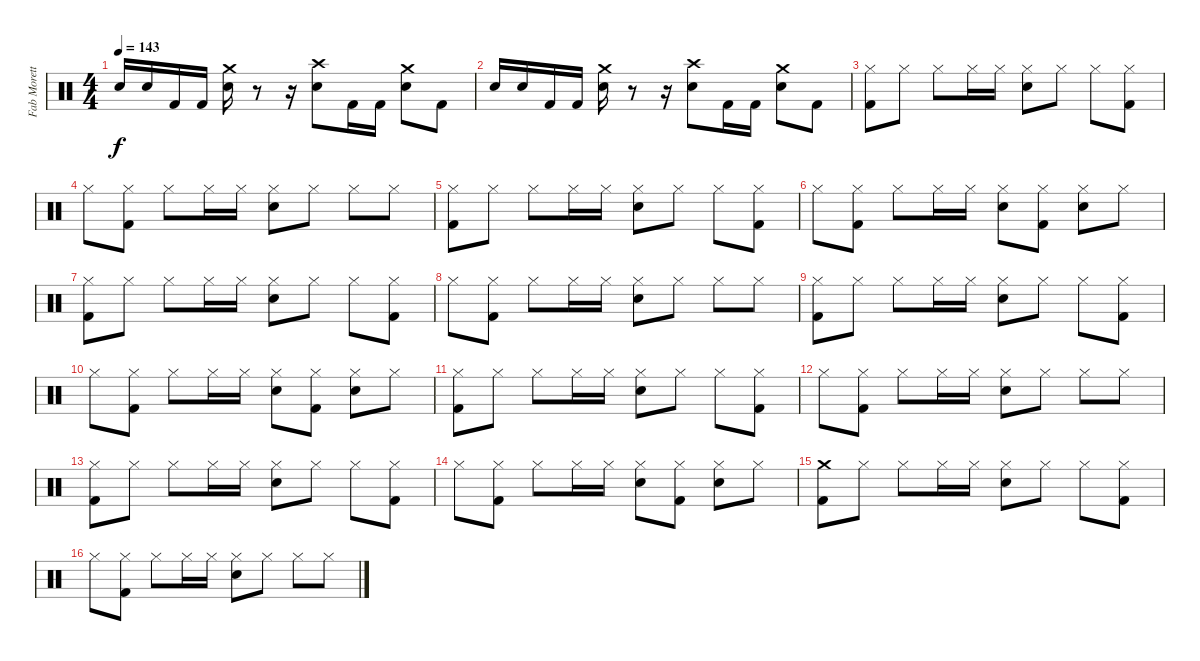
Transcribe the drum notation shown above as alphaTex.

\track ("Fab Moretti" "Fab Morett") {instrument percussion}
\staff {score}
\articulation defaults
\ts (4 4)
\tempo 143
\clef neutral
\ks c "Electric Snare (hit)".16{dy f} "Electric Snare (hit)".16 "Kick (hit) 2".16 "Kick (hit) 2".16
("Crash medium (hit)" "Electric Snare (hit)").16 r.8 r.16 ("Crash high (hit)" "Electric Snare (hit)").8 "Kick (hit) 2".16 "Kick (hit) 2".16 ("Crash medium (hit)" "Electric Snare (hit)").8 "Kick (hit) 2".8 |
"Electric Snare (hit)".16 "Electric Snare (hit)".16 "Kick (hit) 2".16 "Kick (hit) 2".16 ("Crash medium (hit)" "Electric Snare (hit)").16 r.8 r.16 ("Crash high (hit)" "Electric Snare (hit)").8 "Kick (hit) 2".16 "Kick (hit) 2".16 ("Crash medium (hit)" "Electric Snare (hit)").8 "Kick (hit) 2".8 |
("Hi-Hat (closed)" "Kick (hit) 2").8 "Hi-Hat (closed)".8 "Hi-Hat (closed)".8 "Hi-Hat (closed)".16 "Hi-Hat (closed)".16 ("Hi-Hat (closed)" "Electric Snare (hit)").8 "Hi-Hat (closed)".8 "Hi-Hat (closed)".8 ("Hi-Hat (closed)" "Kick (hit) 2").8 |
"Hi-Hat (closed)".8 ("Hi-Hat (closed)" "Kick (hit) 2").8 "Hi-Hat (closed)".8 "Hi-Hat (closed)".16 "Hi-Hat (closed)".16 ("Hi-Hat (closed)" "Electric Snare (hit)").8 "Hi-Hat (closed)".8 "Hi-Hat (closed)".8 "Hi-Hat (closed)".8 |
("Hi-Hat (closed)" "Kick (hit) 2").8 "Hi-Hat (closed)".8 "Hi-Hat (closed)".8 "Hi-Hat (closed)".16 "Hi-Hat (closed)".16 ("Hi-Hat (closed)" "Electric Snare (hit)").8 "Hi-Hat (closed)".8 "Hi-Hat (closed)".8 ("Hi-Hat (closed)" "Kick (hit) 2").8 |
"Hi-Hat (closed)".8 ("Hi-Hat (closed)" "Kick (hit) 2").8 "Hi-Hat (closed)".8 "Hi-Hat (closed)".16 "Hi-Hat (closed)".16 ("Hi-Hat (closed)" "Electric Snare (hit)").8 ("Hi-Hat (closed)" "Kick (hit) 2").8 ("Hi-Hat (closed)" "Electric Snare (hit)").8 "Hi-Hat (closed)".8 |
("Hi-Hat (closed)" "Kick (hit) 2").8 "Hi-Hat (closed)".8 "Hi-Hat (closed)".8 "Hi-Hat (closed)".16 "Hi-Hat (closed)".16 ("Hi-Hat (closed)" "Electric Snare (hit)").8 "Hi-Hat (closed)".8 "Hi-Hat (closed)".8 ("Hi-Hat (closed)" "Kick (hit) 2").8 |
"Hi-Hat (closed)".8 ("Hi-Hat (closed)" "Kick (hit) 2").8 "Hi-Hat (closed)".8 "Hi-Hat (closed)".16 "Hi-Hat (closed)".16 ("Hi-Hat (closed)" "Electric Snare (hit)").8 "Hi-Hat (closed)".8 "Hi-Hat (closed)".8 "Hi-Hat (closed)".8 |
("Hi-Hat (closed)" "Kick (hit) 2").8 "Hi-Hat (closed)".8 "Hi-Hat (closed)".8 "Hi-Hat (closed)".16 "Hi-Hat (closed)".16 ("Hi-Hat (closed)" "Electric Snare (hit)").8 "Hi-Hat (closed)".8 "Hi-Hat (closed)".8 ("Hi-Hat (closed)" "Kick (hit) 2").8 |
"Hi-Hat (closed)".8 ("Hi-Hat (closed)" "Kick (hit) 2").8 "Hi-Hat (closed)".8 "Hi-Hat (closed)".16 "Hi-Hat (closed)".16 ("Hi-Hat (closed)" "Electric Snare (hit)").8 ("Hi-Hat (closed)" "Kick (hit) 2").8 ("Hi-Hat (closed)" "Electric Snare (hit)").8 "Hi-Hat (closed)".8 |
("Hi-Hat (closed)" "Kick (hit) 2").8 "Hi-Hat (closed)".8 "Hi-Hat (closed)".8 "Hi-Hat (closed)".16 "Hi-Hat (closed)".16 ("Hi-Hat (closed)" "Electric Snare (hit)").8 "Hi-Hat (closed)".8 "Hi-Hat (closed)".8 ("Hi-Hat (closed)" "Kick (hit) 2").8 |
"Hi-Hat (closed)".8 ("Hi-Hat (closed)" "Kick (hit) 2").8 "Hi-Hat (closed)".8 "Hi-Hat (closed)".16 "Hi-Hat (closed)".16 ("Hi-Hat (closed)" "Electric Snare (hit)").8 "Hi-Hat (closed)".8 "Hi-Hat (closed)".8 "Hi-Hat (closed)".8 |
("Hi-Hat (closed)" "Kick (hit) 2").8 "Hi-Hat (closed)".8 "Hi-Hat (closed)".8 "Hi-Hat (closed)".16 "Hi-Hat (closed)".16 ("Hi-Hat (closed)" "Electric Snare (hit)").8 "Hi-Hat (closed)".8 "Hi-Hat (closed)".8 ("Hi-Hat (closed)" "Kick (hit) 2").8 |
"Hi-Hat (closed)".8 ("Hi-Hat (closed)" "Kick (hit) 2").8 "Hi-Hat (closed)".8 "Hi-Hat (closed)".16 "Hi-Hat (closed)".16 ("Hi-Hat (closed)" "Electric Snare (hit)").8 ("Hi-Hat (closed)" "Kick (hit) 2").8 ("Hi-Hat (closed)" "Electric Snare (hit)").8 "Hi-Hat (closed)".8 |
("Crash medium (hit)" "Kick (hit) 2").8 "Hi-Hat (closed)".8 "Hi-Hat (closed)".8 "Hi-Hat (closed)".16 "Hi-Hat (closed)".16 ("Hi-Hat (closed)" "Electric Snare (hit)").8 "Hi-Hat (closed)".8 "Hi-Hat (closed)".8 ("Hi-Hat (closed)" "Kick (hit) 2").8 |
"Hi-Hat (closed)".8 ("Hi-Hat (closed)" "Kick (hit) 2").8 "Hi-Hat (closed)".8 "Hi-Hat (closed)".16 "Hi-Hat (closed)".16 ("Hi-Hat (closed)" "Electric Snare (hit)").8 "Hi-Hat (closed)".8 "Hi-Hat (closed)".8 "Hi-Hat (closed)".8
